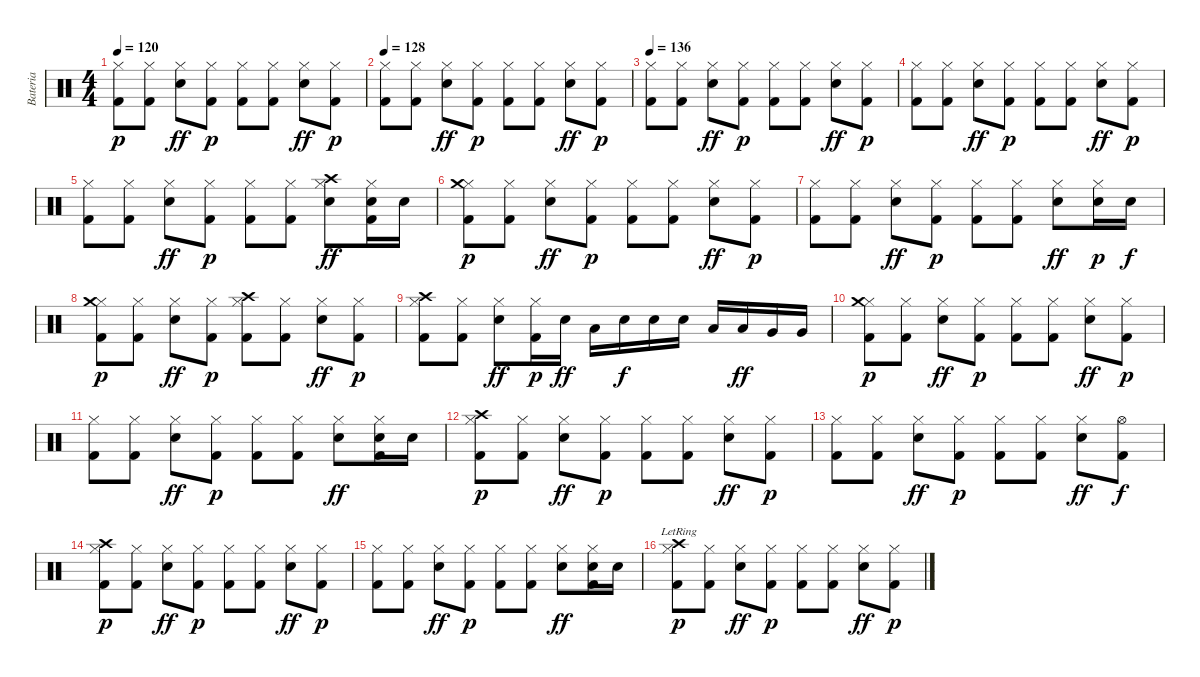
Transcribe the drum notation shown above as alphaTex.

\track ("Bateria" "Bateria") {instrument percussion}
\staff {score}
\articulation defaults
\ts (4 4)
\tempo 120
\clef neutral
\ks c
("Hi-Hat (closed)" "Kick (hit) 2").8{dy p} ("Hi-Hat (closed)" "Kick (hit) 2").8 ("Hi-Hat (closed)" "Snare (hit) 2").8{dy ff} ("Hi-Hat (closed)" "Kick (hit) 2").8{dy p} ("Hi-Hat (closed)" "Kick (hit) 2").8 ("Hi-Hat (closed)" "Kick (hit) 2").8 ("Hi-Hat (closed)" "Snare (hit) 2").8{dy ff} ("Hi-Hat (closed)" "Kick (hit) 2").8{dy p} |
\tempo 128
("Hi-Hat (closed)" "Kick (hit) 2").8 ("Hi-Hat (closed)" "Kick (hit) 2").8 ("Hi-Hat (closed)" "Snare (hit) 2").8{dy ff} ("Hi-Hat (closed)" "Kick (hit) 2").8{dy p} ("Hi-Hat (closed)" "Kick (hit) 2").8 ("Hi-Hat (closed)" "Kick (hit) 2").8 ("Hi-Hat (closed)" "Snare (hit) 2").8{dy ff} ("Hi-Hat (closed)" "Kick (hit) 2").8{dy p} |
\tempo 136
("Hi-Hat (closed)" "Kick (hit) 2").8 ("Hi-Hat (closed)" "Kick (hit) 2").8 ("Hi-Hat (closed)" "Snare (hit) 2").8{dy ff} ("Hi-Hat (closed)" "Kick (hit) 2").8{dy p} ("Hi-Hat (closed)" "Kick (hit) 2").8 ("Hi-Hat (closed)" "Kick (hit) 2").8 ("Hi-Hat (closed)" "Snare (hit) 2").8{dy ff} ("Hi-Hat (closed)" "Kick (hit) 2").8{dy p} |
("Hi-Hat (closed)" "Kick (hit) 2").8 ("Hi-Hat (closed)" "Kick (hit) 2").8 ("Hi-Hat (closed)" "Snare (hit) 2").8{dy ff} ("Hi-Hat (closed)" "Kick (hit) 2").8{dy p} ("Hi-Hat (closed)" "Kick (hit) 2").8 ("Hi-Hat (closed)" "Kick (hit) 2").8 ("Hi-Hat (closed)" "Snare (hit) 2").8{dy ff} ("Hi-Hat (closed)" "Kick (hit) 2").8{dy p} |
("Hi-Hat (closed)" "Kick (hit) 2").8 ("Hi-Hat (closed)" "Kick (hit) 2").8 ("Hi-Hat (closed)" "Snare (hit) 2").8{dy ff} ("Hi-Hat (closed)" "Kick (hit) 2").8{dy p} ("Hi-Hat (closed)" "Kick (hit) 2").8 ("Hi-Hat (closed)" "Kick (hit) 2").8 ("Hi-Hat (closed)" "Snare (hit) 2" "Crash high (hit)").8{dy ff} ("Hi-Hat (closed)" "Snare (hit) 2" "Kick (hit) 2").16 "Snare (hit) 2".16 |
("Hi-Hat (closed)" "Kick (hit) 2" "Crash medium (hit)").8{dy p} ("Hi-Hat (closed)" "Kick (hit) 2").8 ("Hi-Hat (closed)" "Snare (hit) 2").8{dy ff} ("Hi-Hat (closed)" "Kick (hit) 2").8{dy p} ("Hi-Hat (closed)" "Kick (hit) 2").8 ("Hi-Hat (closed)" "Kick (hit) 2").8 ("Hi-Hat (closed)" "Snare (hit) 2").8{dy ff} ("Hi-Hat (closed)" "Kick (hit) 2").8{dy p} |
("Hi-Hat (closed)" "Kick (hit) 2").8 ("Hi-Hat (closed)" "Kick (hit) 2").8 ("Hi-Hat (closed)" "Snare (hit) 2").8{dy ff} ("Hi-Hat (closed)" "Kick (hit) 2").8{dy p} ("Hi-Hat (closed)" "Kick (hit) 2").8 ("Hi-Hat (closed)" "Kick (hit) 2").8 ("Hi-Hat (closed)" "Snare (hit) 2").8{dy ff} ("Hi-Hat (closed)" "Snare (hit) 2").16{dy p} "Snare (hit) 2".16{dy f} |
("Hi-Hat (closed)" "Kick (hit) 2" "Crash medium (hit)").8{dy p} ("Hi-Hat (closed)" "Kick (hit) 2").8 ("Hi-Hat (closed)" "Snare (hit) 2").8{dy ff} ("Hi-Hat (closed)" "Kick (hit) 2").8{dy p} ("Hi-Hat (closed)" "Crash high (hit)" "Kick (hit) 2").8 ("Hi-Hat (closed)" "Kick (hit) 2").8 ("Hi-Hat (closed)" "Snare (hit) 2").8{dy ff} ("Hi-Hat (closed)" "Kick (hit) 2").8{dy p} |
("Hi-Hat (closed)" "Kick (hit) 2" "Crash high (hit)").8 ("Hi-Hat (closed)" "Kick (hit) 2").8 ("Hi-Hat (closed)" "Snare (hit) 2").8{dy ff} ("Hi-Hat (closed)" "Kick (hit) 2").16{dy p} "Snare (hit) 2".16{dy ff} "Low Tom (hit)".16 "Snare (hit) 2".16{dy f} "Snare (hit) 2".16 "Snare (hit) 2".16 "Low Tom (hit)".16 "Low Tom (hit)".16{dy ff} "Very Low Tom (hit)".16 "Very Low Tom (hit)".16 |
("Hi-Hat (closed)" "Kick (hit) 2" "Crash medium (hit)").8{dy p} ("Hi-Hat (closed)" "Kick (hit) 2").8 ("Hi-Hat (closed)" "Snare (hit) 2").8{dy ff} ("Hi-Hat (closed)" "Kick (hit) 2").8{dy p} ("Hi-Hat (closed)" "Kick (hit) 2").8 ("Hi-Hat (closed)" "Kick (hit) 2").8 ("Hi-Hat (closed)" "Snare (hit) 2").8{dy ff} ("Hi-Hat (closed)" "Kick (hit) 2").8{dy p} |
("Hi-Hat (closed)" "Kick (hit) 2").8 ("Hi-Hat (closed)" "Kick (hit) 2").8 ("Hi-Hat (closed)" "Snare (hit) 2").8{dy ff} ("Hi-Hat (closed)" "Kick (hit) 2").8{dy p} ("Hi-Hat (closed)" "Kick (hit) 2").8 ("Hi-Hat (closed)" "Kick (hit) 2").8 ("Hi-Hat (closed)" "Snare (hit) 2").8{dy ff} ("Hi-Hat (closed)" "Snare (hit) 2" "Kick (hit) 2").16 "Snare (hit) 2".16 |
("Hi-Hat (closed)" "Kick (hit) 2" "Crash high (hit)").8{dy p} ("Hi-Hat (closed)" "Kick (hit) 2").8 ("Hi-Hat (closed)" "Snare (hit) 2").8{dy ff} ("Hi-Hat (closed)" "Kick (hit) 2").8{dy p} ("Hi-Hat (closed)" "Kick (hit) 2").8 ("Hi-Hat (closed)" "Kick (hit) 2").8 ("Hi-Hat (closed)" "Snare (hit) 2").8{dy ff} ("Hi-Hat (closed)" "Kick (hit) 2").8{dy p} |
("Hi-Hat (closed)" "Kick (hit) 2").8 ("Hi-Hat (closed)" "Kick (hit) 2").8 ("Hi-Hat (closed)" "Snare (hit) 2").8{dy ff} ("Hi-Hat (closed)" "Kick (hit) 2").8{dy p} ("Hi-Hat (closed)" "Kick (hit) 2").8 ("Hi-Hat (closed)" "Kick (hit) 2").8 ("Hi-Hat (closed)" "Snare (hit) 2").8{dy ff} ("Hi-Hat (open)" "Kick (hit) 2").8{dy f} |
("Hi-Hat (closed)" "Kick (hit) 2" "Crash high (hit)").8{dy p} ("Hi-Hat (closed)" "Kick (hit) 2").8 ("Hi-Hat (closed)" "Snare (hit) 2").8{dy ff} ("Hi-Hat (closed)" "Kick (hit) 2").8{dy p} ("Hi-Hat (closed)" "Kick (hit) 2").8 ("Hi-Hat (closed)" "Kick (hit) 2").8 ("Hi-Hat (closed)" "Snare (hit) 2").8{dy ff} ("Hi-Hat (closed)" "Kick (hit) 2").8{dy p} |
("Hi-Hat (closed)" "Kick (hit) 2").8 ("Hi-Hat (closed)" "Kick (hit) 2").8 ("Hi-Hat (closed)" "Snare (hit) 2").8{dy ff} ("Hi-Hat (closed)" "Kick (hit) 2").8{dy p} ("Hi-Hat (closed)" "Kick (hit) 2").8 ("Hi-Hat (closed)" "Kick (hit) 2").8 ("Hi-Hat (closed)" "Snare (hit) 2").8{dy ff} ("Hi-Hat (closed)" "Snare (hit) 2" "Kick (hit) 2").16 "Snare (hit) 2".16 |
("Hi-Hat (closed)" "Kick (hit) 2" "Crash high (hit)"{lr}).8{dy p} ("Hi-Hat (closed)" "Kick (hit) 2").8 ("Hi-Hat (closed)" "Snare (hit) 2").8{dy ff} ("Hi-Hat (closed)" "Kick (hit) 2").8{dy p} ("Hi-Hat (closed)" "Kick (hit) 2").8 ("Hi-Hat (closed)" "Kick (hit) 2").8 ("Hi-Hat (closed)" "Snare (hit) 2").8{dy ff} ("Hi-Hat (closed)" "Kick (hit) 2").8{dy p}
